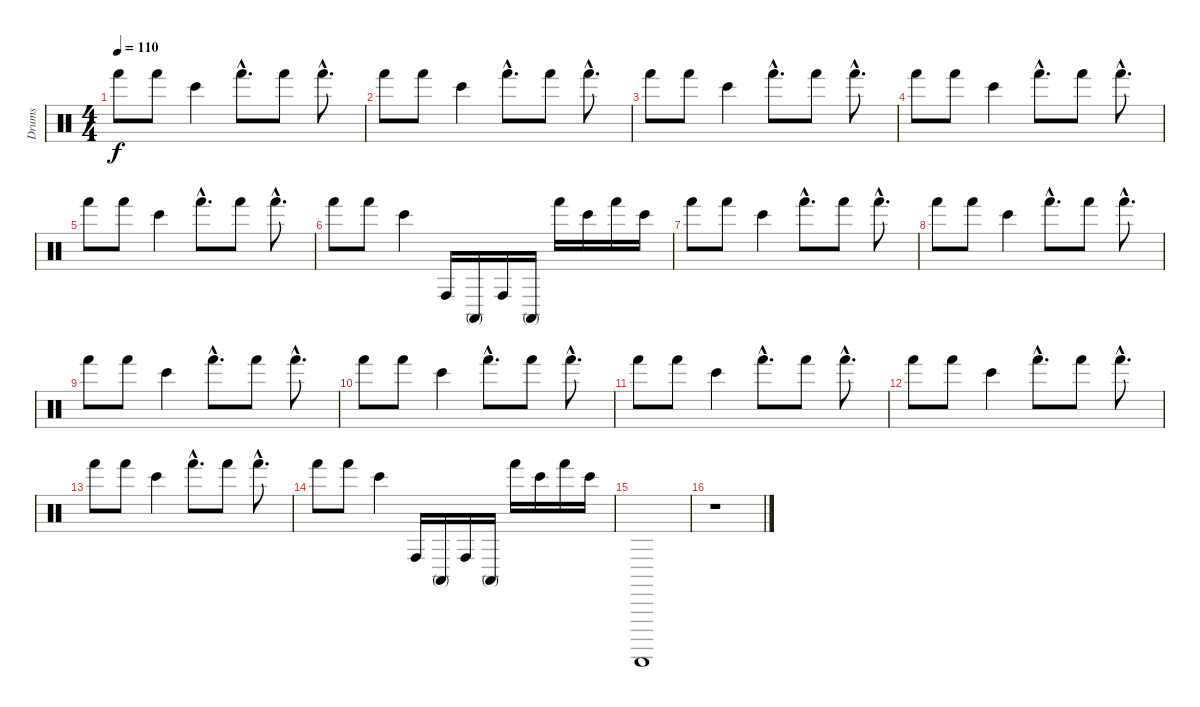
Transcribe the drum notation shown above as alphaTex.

\track ("Drums" "Drums") {instrument percussion}
\staff {score}
\articulation defaults
\ts (4 4)
\tempo 110
\clef neutral
\ks c "Hand (hit)".8{dy f} "Hand (hit)".8 "Bongo High (hit)".4 "Hand (hit)"{hac}.8{d} "Hand (hit)".8 "Hand (hit)"{hac}.8{d}
|
"Hand (hit)".8 "Hand (hit)".8 "Bongo High (hit)".4 "Hand (hit)"{hac}.8{d} "Hand (hit)".8 "Hand (hit)"{hac}.8{d} |
"Hand (hit)".8 "Hand (hit)".8 "Bongo High (hit)".4 "Hand (hit)"{hac}.8{d} "Hand (hit)".8 "Hand (hit)"{hac}.8{d} |
"Hand (hit)".8 "Hand (hit)".8 "Bongo High (hit)".4 "Hand (hit)"{hac}.8{d} "Hand (hit)".8 "Hand (hit)"{hac}.8{d} |
"Hand (hit)".8 "Hand (hit)".8 "Bongo High (hit)".4 "Hand (hit)"{hac}.8{d} "Hand (hit)".8 "Hand (hit)"{hac}.8{d} |
"Hand (hit)".8 "Hand (hit)".8 "Bongo High (hit)".4 "Conga high (hit)".16 "Conga high (mute)".16 "Conga high (hit)".16 "Conga high (mute)".16 "Hand (hit)".16 "Bongo High (hit)".16 "Hand (hit)".16 "Bongo High (hit)".16 |
"Hand (hit)".8 "Hand (hit)".8 "Bongo High (hit)".4 "Hand (hit)"{hac}.8{d} "Hand (hit)".8 "Hand (hit)"{hac}.8{d} |
"Hand (hit)".8 "Hand (hit)".8 "Bongo High (hit)".4 "Hand (hit)"{hac}.8{d} "Hand (hit)".8 "Hand (hit)"{hac}.8{d} |
"Hand (hit)".8 "Hand (hit)".8 "Bongo High (hit)".4 "Hand (hit)"{hac}.8{d} "Hand (hit)".8 "Hand (hit)"{hac}.8{d} |
"Hand (hit)".8 "Hand (hit)".8 "Bongo High (hit)".4 "Hand (hit)"{hac}.8{d} "Hand (hit)".8 "Hand (hit)"{hac}.8{d} |
"Hand (hit)".8 "Hand (hit)".8 "Bongo High (hit)".4 "Hand (hit)"{hac}.8{d} "Hand (hit)".8 "Hand (hit)"{hac}.8{d} |
"Hand (hit)".8 "Hand (hit)".8 "Bongo High (hit)".4 "Hand (hit)"{hac}.8{d} "Hand (hit)".8 "Hand (hit)"{hac}.8{d} |
"Hand (hit)".8 "Hand (hit)".8 "Bongo High (hit)".4 "Hand (hit)"{hac}.8{d} "Hand (hit)".8 "Hand (hit)"{hac}.8{d} |
"Hand (hit)".8 "Hand (hit)".8 "Bongo High (hit)".4 "Conga high (hit)".16 "Conga high (mute)".16 "Conga high (hit)".16 "Conga high (mute)".16 "Hand (hit)".16 "Bongo High (hit)".16 "Hand (hit)".16 "Bongo High (hit)".16 |
"Guiro (scrap-return)".1 |
r.1
